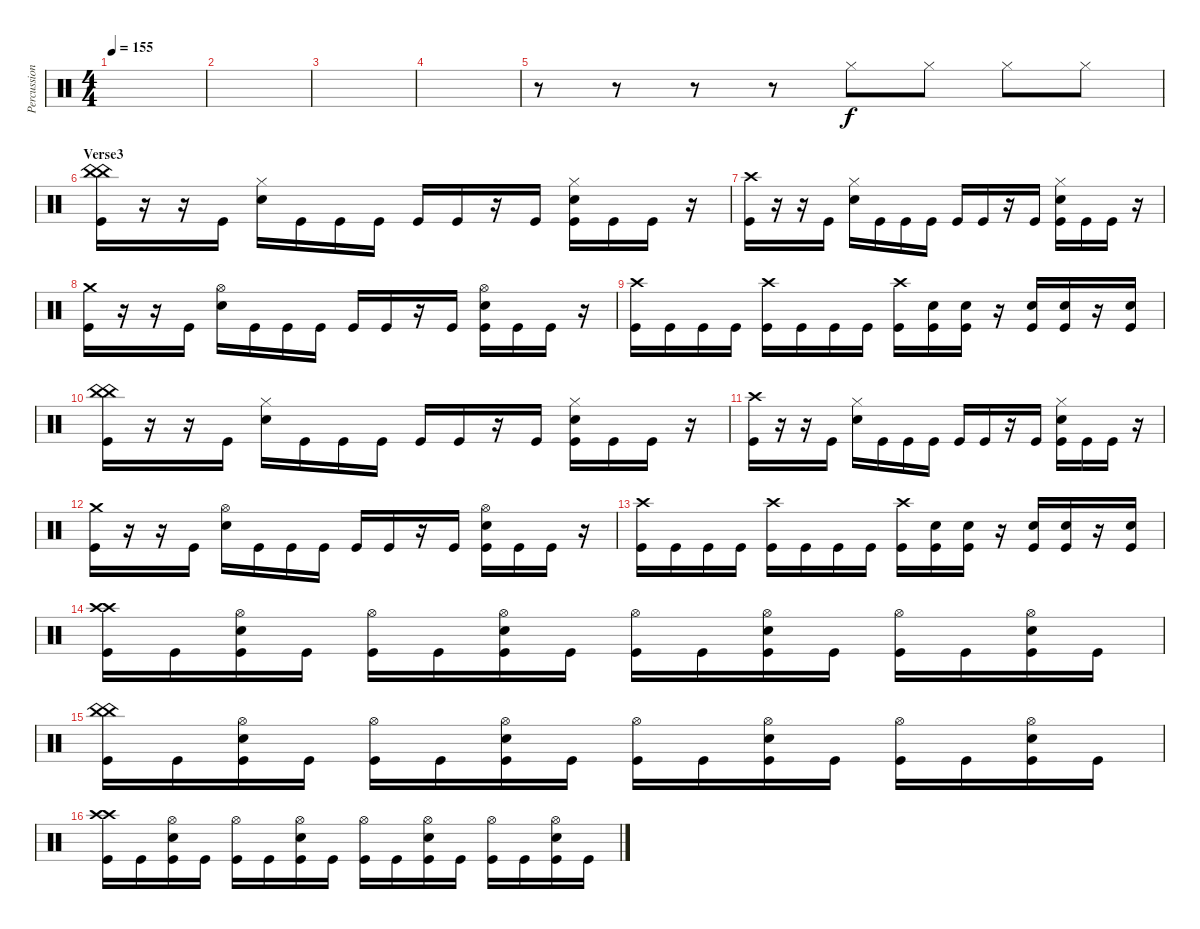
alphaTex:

\track ("Percussion" "Percussion") {instrument percussion}
\staff {score}
\articulation defaults
\ts (4 4)
\tempo 155
\clef neutral
\ks c
|
|
|
|
r.8 r.8 r.8 r.8 "Hi-Hat (closed)".8 "Hi-Hat (closed)".8 "Hi-Hat (closed)".8 "Hi-Hat (closed)".8 |
\section ("" "Verse3")
("China (hit)" "China (hit)" "Kick (hit)").16 r.16 r.16 "Kick (hit)".16 ("Hi-Hat (closed)" "Electric Snare (hit)").16 "Kick (hit)".16 "Kick (hit)".16 "Kick (hit)".16 "Kick (hit)".16 "Kick (hit)".16 r.16 "Kick (hit)".16 ("Hi-Hat (closed)" "Electric Snare (hit)" "Kick (hit)").16 "Kick (hit)".16 "Kick (hit)".16 r.16 |
("Crash high (hit)" "Kick (hit)").16 r.16 r.16 "Kick (hit)".16 ("Hi-Hat (closed)" "Electric Snare (hit)").16 "Kick (hit)".16 "Kick (hit)".16 "Kick (hit)".16 "Kick (hit)".16 "Kick (hit)".16 r.16 "Kick (hit)".16 ("Hi-Hat (closed)" "Electric Snare (hit)" "Kick (hit)").16 "Kick (hit)".16 "Kick (hit)".16 r.16 |
("Crash medium (hit)" "Kick (hit)").16 r.16 r.16 "Kick (hit)".16 ("Hi-Hat (open)" "Electric Snare (hit)").16 "Kick (hit)".16 "Kick (hit)".16 "Kick (hit)".16 "Kick (hit)".16 "Kick (hit)".16 r.16 "Kick (hit)".16 ("Hi-Hat (open)" "Electric Snare (hit)" "Kick (hit)").16 "Kick (hit)".16 "Kick (hit)".16 r.16 |
("Crash high (hit)" "Kick (hit)").16 "Kick (hit)".16 "Kick (hit)".16 "Kick (hit)".16 ("Crash high (hit)" "Kick (hit)").16 "Kick (hit)".16 "Kick (hit)".16 "Kick (hit)".16 ("Crash high (hit)" "Kick (hit)").16 ("Electric Snare (hit)" "Kick (hit)").16 ("Electric Snare (hit)" "Kick (hit)").16 r.16 ("Electric Snare (hit)" "Kick (hit)").16 ("Electric Snare (hit)" "Kick (hit)").16 r.16 ("Electric Snare (hit)" "Kick (hit)").16 |
("China (hit)" "China (hit)" "Kick (hit)").16 r.16 r.16 "Kick (hit)".16 ("Hi-Hat (closed)" "Electric Snare (hit)").16 "Kick (hit)".16 "Kick (hit)".16 "Kick (hit)".16 "Kick (hit)".16 "Kick (hit)".16 r.16 "Kick (hit)".16 ("Hi-Hat (closed)" "Electric Snare (hit)" "Kick (hit)").16 "Kick (hit)".16 "Kick (hit)".16 r.16 |
("Crash high (hit)" "Kick (hit)").16 r.16 r.16 "Kick (hit)".16 ("Hi-Hat (closed)" "Electric Snare (hit)").16 "Kick (hit)".16 "Kick (hit)".16 "Kick (hit)".16 "Kick (hit)".16 "Kick (hit)".16 r.16 "Kick (hit)".16 ("Hi-Hat (closed)" "Electric Snare (hit)" "Kick (hit)").16 "Kick (hit)".16 "Kick (hit)".16 r.16 |
("Crash medium (hit)" "Kick (hit)").16 r.16 r.16 "Kick (hit)".16 ("Hi-Hat (open)" "Electric Snare (hit)").16 "Kick (hit)".16 "Kick (hit)".16 "Kick (hit)".16 "Kick (hit)".16 "Kick (hit)".16 r.16 "Kick (hit)".16 ("Hi-Hat (open)" "Electric Snare (hit)" "Kick (hit)").16 "Kick (hit)".16 "Kick (hit)".16 r.16 |
("Crash high (hit)" "Kick (hit)").16 "Kick (hit)".16 "Kick (hit)".16 "Kick (hit)".16 ("Crash high (hit)" "Kick (hit)").16 "Kick (hit)".16 "Kick (hit)".16 "Kick (hit)".16 ("Crash high (hit)" "Kick (hit)").16 ("Electric Snare (hit)" "Kick (hit)").16 ("Electric Snare (hit)" "Kick (hit)").16 r.16 ("Electric Snare (hit)" "Kick (hit)").16 ("Electric Snare (hit)" "Kick (hit)").16 r.16 ("Electric Snare (hit)" "Kick (hit)").16 |
("Crash high (hit)" "Crash high (hit)" "Kick (hit)").16 "Kick (hit)".16 ("Hi-Hat (open)" "Electric Snare (hit)" "Kick (hit)").16 "Kick (hit)".16 ("Hi-Hat (open)" "Kick (hit)").16 "Kick (hit)".16 ("Hi-Hat (open)" "Electric Snare (hit)" "Kick (hit)").16 "Kick (hit)".16 ("Hi-Hat (open)" "Kick (hit)").16 "Kick (hit)".16 ("Hi-Hat (open)" "Electric Snare (hit)" "Kick (hit)").16 "Kick (hit)".16 ("Hi-Hat (open)" "Kick (hit)").16 "Kick (hit)".16 ("Hi-Hat (open)" "Electric Snare (hit)" "Kick (hit)").16 "Kick (hit)".16 |
("China (hit)" "China (hit)" "Kick (hit)").16 "Kick (hit)".16 ("Hi-Hat (open)" "Electric Snare (hit)" "Kick (hit)").16 "Kick (hit)".16 ("Hi-Hat (open)" "Kick (hit)").16 "Kick (hit)".16 ("Hi-Hat (open)" "Electric Snare (hit)" "Kick (hit)").16 "Kick (hit)".16 ("Hi-Hat (open)" "Kick (hit)").16 "Kick (hit)".16 ("Hi-Hat (open)" "Electric Snare (hit)" "Kick (hit)").16 "Kick (hit)".16 ("Hi-Hat (open)" "Kick (hit)").16 "Kick (hit)".16 ("Hi-Hat (open)" "Electric Snare (hit)" "Kick (hit)").16 "Kick (hit)".16 |
("Crash high (hit)" "Crash high (hit)" "Kick (hit)").16 "Kick (hit)".16 ("Hi-Hat (open)" "Electric Snare (hit)" "Kick (hit)").16 "Kick (hit)".16 ("Hi-Hat (open)" "Kick (hit)").16 "Kick (hit)".16 ("Hi-Hat (open)" "Electric Snare (hit)" "Kick (hit)").16 "Kick (hit)".16 ("Hi-Hat (open)" "Kick (hit)").16 "Kick (hit)".16 ("Hi-Hat (open)" "Electric Snare (hit)" "Kick (hit)").16 "Kick (hit)".16 ("Hi-Hat (open)" "Kick (hit)").16 "Kick (hit)".16 ("Hi-Hat (open)" "Electric Snare (hit)" "Kick (hit)").16 "Kick (hit)".16
